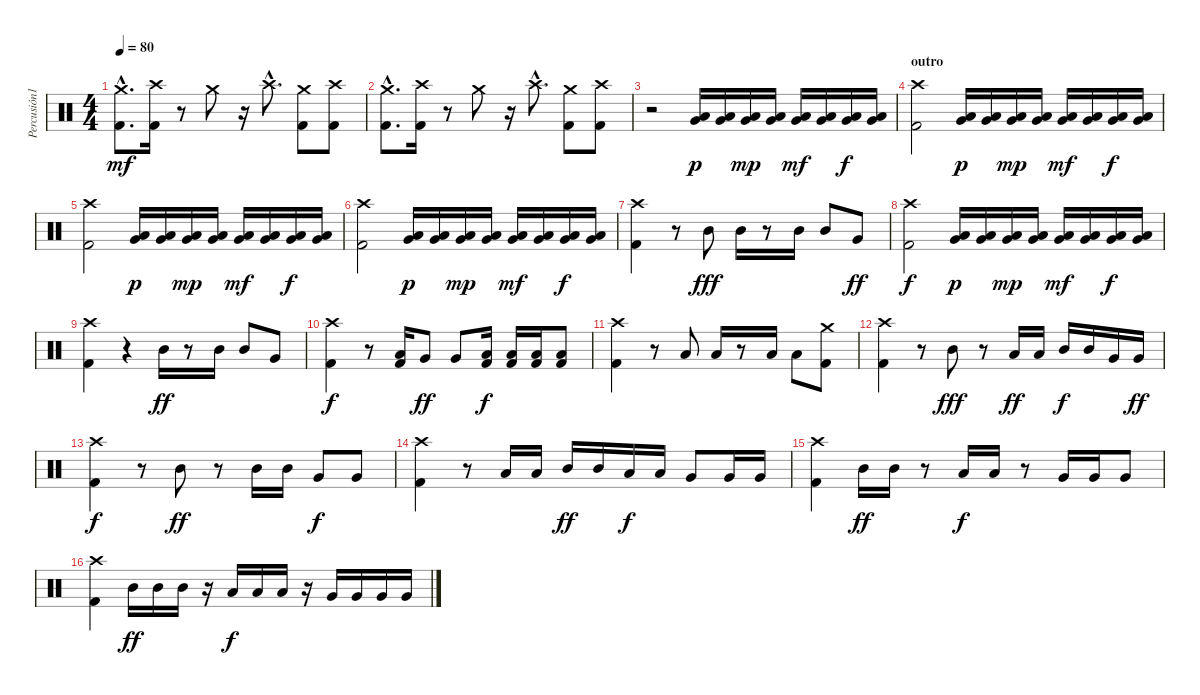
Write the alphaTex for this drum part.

\track ("Percusión1" "Percusión1") {instrument percussion}
\staff {score}
\articulation defaults
\ts (4 4)
\tempo 80
\clef neutral
\ks c
("Crash medium (hit)"{hac} "Kick (hit) 2"{hac}).8{d dy mf} ("Crash high (hit)" "Kick (hit) 2").16 r.8 "Crash medium (hit)".8 r.16 "Crash high (hit)"{hac}.8{d} ("Crash medium (hit)" "Kick (hit) 2").8 ("Crash high (hit)" "Kick (hit) 2").8 |
("Crash medium (hit)"{hac} "Kick (hit) 2"{hac}).8{d} ("Crash high (hit)" "Kick (hit) 2").16 r.8 "Crash medium (hit)".8 r.16 "Crash high (hit)"{hac}.8{d} ("Crash medium (hit)" "Kick (hit) 2").8 ("Crash high (hit)" "Kick (hit) 2").8 |
r.2 ("Very Low Tom (hit)" "Low Floor Tom (hit)").16{dy p} ("Very Low Tom (hit)" "Low Floor Tom (hit)").16 ("Very Low Tom (hit)" "Low Floor Tom (hit)").16{dy mp} ("Very Low Tom (hit)" "Low Floor Tom (hit)").16 ("Low Tom (hit)" "Very Low Tom (hit)").16{dy mf} ("Low Tom (hit)" "Very Low Tom (hit)").16 ("Low Tom (hit)" "Very Low Tom (hit)").16{dy f} ("Low Tom (hit)" "Very Low Tom (hit)").16 |
\section ("" "outro")
("Crash high (hit)" "Kick (hit) 2").2 ("Very Low Tom (hit)" "Low Floor Tom (hit)").16{dy p} ("Very Low Tom (hit)" "Low Floor Tom (hit)").16 ("Very Low Tom (hit)" "Low Floor Tom (hit)").16{dy mp} ("Very Low Tom (hit)" "Low Floor Tom (hit)").16 ("Low Tom (hit)" "Very Low Tom (hit)").16{dy mf} ("Low Tom (hit)" "Very Low Tom (hit)").16 ("Low Tom (hit)" "Very Low Tom (hit)").16{dy f} ("Low Tom (hit)" "Very Low Tom (hit)").16 |
("Crash high (hit)" "Kick (hit) 2").2 ("Very Low Tom (hit)" "Low Floor Tom (hit)").16{dy p} ("Very Low Tom (hit)" "Low Floor Tom (hit)").16 ("Very Low Tom (hit)" "Low Floor Tom (hit)").16{dy mp} ("Very Low Tom (hit)" "Low Floor Tom (hit)").16 ("Low Tom (hit)" "Very Low Tom (hit)").16{dy mf} ("Low Tom (hit)" "Very Low Tom (hit)").16 ("Low Tom (hit)" "Very Low Tom (hit)").16{dy f} ("Low Tom (hit)" "Very Low Tom (hit)").16 |
("Crash high (hit)" "Kick (hit) 2").2 ("Very Low Tom (hit)" "Low Floor Tom (hit)").16{dy p} ("Very Low Tom (hit)" "Low Floor Tom (hit)").16 ("Very Low Tom (hit)" "Low Floor Tom (hit)").16{dy mp} ("Very Low Tom (hit)" "Low Floor Tom (hit)").16 ("Low Tom (hit)" "Very Low Tom (hit)").16{dy mf} ("Low Tom (hit)" "Very Low Tom (hit)").16 ("Low Tom (hit)" "Very Low Tom (hit)").16{dy f} ("Low Tom (hit)" "Very Low Tom (hit)").16 |
("Crash high (hit)" "Kick (hit) 2").4 r.8 "Mid Tom (hit)".8{dy fff} "Mid Tom (hit)".16 r.8 "Mid Tom (hit)".16 "Mid Tom (hit)".8 "Very Low Tom (hit)".8{dy ff} |
("Crash high (hit)" "Kick (hit) 2").2{dy f} ("Very Low Tom (hit)" "Low Floor Tom (hit)").16{dy p} ("Very Low Tom (hit)" "Low Floor Tom (hit)").16 ("Very Low Tom (hit)" "Low Floor Tom (hit)").16{dy mp} ("Very Low Tom (hit)" "Low Floor Tom (hit)").16 ("Low Tom (hit)" "Very Low Tom (hit)").16{dy mf} ("Low Tom (hit)" "Very Low Tom (hit)").16 ("Low Tom (hit)" "Very Low Tom (hit)").16{dy f} ("Low Tom (hit)" "Very Low Tom (hit)").16 |
("Crash high (hit)" "Kick (hit) 2").4 r.4 "Mid Tom (hit)".16{dy ff} r.8 "Mid Tom (hit)".16 "Mid Tom (hit)".8 "Very Low Tom (hit)".8 |
("Crash high (hit)" "Kick (hit) 2").4{dy f} r.8 ("Low Floor Tom (hit)" "Kick (hit) 2").16 "Very Low Tom (hit)".8{dy ff} "Very Low Tom (hit)".8 ("Low Floor Tom (hit)" "Kick (hit) 2").16{dy f} ("Low Floor Tom (hit)" "Kick (hit) 2").16 ("Low Floor Tom (hit)" "Kick (hit) 2").16 ("Low Floor Tom (hit)" "Kick (hit) 2").8 |
("Crash high (hit)" "Kick (hit) 2").4 r.8 "Low Tom (hit)".8 "Low Tom (hit)".16 r.8 "Low Tom (hit)".16 "Low Tom (hit)".8 ("Crash medium (hit)" "Kick (hit) 2").8 |
("Crash high (hit)" "Kick (hit) 2").4 r.8 "Mid Tom (hit)".8{dy fff} r.8 "Low Tom (hit)".16{dy ff} "Low Tom (hit)".16 "Mid Tom (hit)".16{dy f} "Mid Tom (hit)".16 "Very Low Tom (hit)".16 "Very Low Tom (hit)".16{dy ff} |
("Crash high (hit)" "Kick (hit) 2").4{dy f} r.8 "Mid Tom (hit)".8{dy ff} r.8 "Mid Tom (hit)".16 "Mid Tom (hit)".16 "Very Low Tom (hit)".8{dy f} "Very Low Tom (hit)".8 |
("Crash high (hit)" "Kick (hit) 2").4 r.8 "Low Tom (hit)".16 "Low Tom (hit)".16 "Mid Tom (hit)".16{dy ff} "Mid Tom (hit)".16 "Low Tom (hit)".16{dy f} "Low Tom (hit)".16 "Very Low Tom (hit)".8 "Very Low Tom (hit)".16 "Very Low Tom (hit)".16 |
("Crash high (hit)" "Kick (hit) 2").4 "Mid Tom (hit)".16{dy ff} "Mid Tom (hit)".16 r.8 "Low Tom (hit)".16{dy f} "Low Tom (hit)".16 r.8 "Very Low Tom (hit)".16 "Very Low Tom (hit)".16 "Very Low Tom (hit)".8 |
("Crash high (hit)" "Kick (hit) 2").4 "Mid Tom (hit)".16{dy ff} "Mid Tom (hit)".16 "Mid Tom (hit)".16 r.16 "Low Tom (hit)".16{dy f} "Low Tom (hit)".16 "Low Tom (hit)".16 r.16 "Very Low Tom (hit)".16 "Very Low Tom (hit)".16 "Very Low Tom (hit)".16 "Very Low Tom (hit)".16
